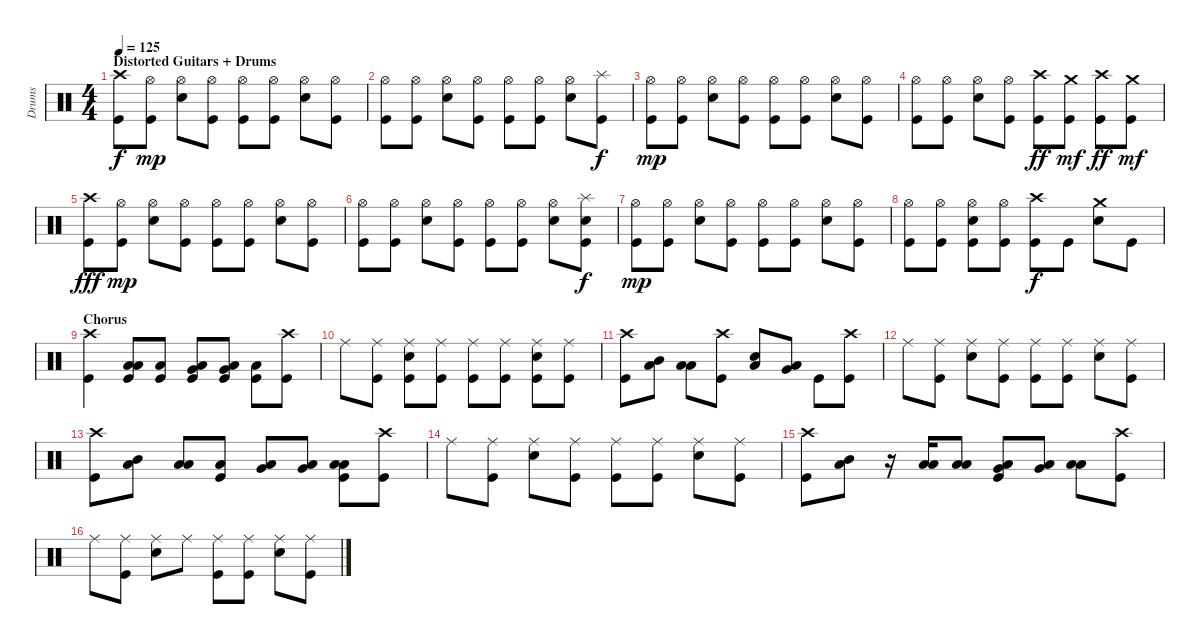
\track ("Drums" "Drums") {instrument percussion}
\staff {score}
\articulation defaults
\ts (4 4)
\section ("" "Distorted Guitars + Drums")
\tempo 125
\clef neutral
\ks c
("Crash high (hit)" "Kick (hit)").8{dy f} ("Hi-Hat (open)" "Kick (hit)").8{dy mp} ("Hi-Hat (open)" "Snare (hit) 2").8 ("Hi-Hat (open)" "Kick (hit)").8 ("Hi-Hat (open)" "Kick (hit)").8 ("Hi-Hat (open)" "Kick (hit)").8 ("Hi-Hat (open)" "Snare (hit) 2").8 ("Hi-Hat (open)" "Kick (hit)").8 |
("Hi-Hat (open)" "Kick (hit)").8 ("Hi-Hat (open)" "Kick (hit)").8 ("Hi-Hat (open)" "Snare (hit) 2").8 ("Hi-Hat (open)" "Kick (hit)").8 ("Hi-Hat (open)" "Kick (hit)").8 ("Hi-Hat (open)" "Kick (hit)").8 ("Hi-Hat (open)" "Snare (hit) 2").8 ("Splash (hit)" "Kick (hit)").8{dy f} |
("Hi-Hat (open)" "Kick (hit)").8{dy mp} ("Hi-Hat (open)" "Kick (hit)").8 ("Hi-Hat (open)" "Snare (hit) 2").8 ("Hi-Hat (open)" "Kick (hit)").8 ("Hi-Hat (open)" "Kick (hit)").8 ("Hi-Hat (open)" "Kick (hit)").8 ("Hi-Hat (open)" "Snare (hit) 2").8 ("Hi-Hat (open)" "Kick (hit)").8 |
("Hi-Hat (open)" "Kick (hit)").8 ("Hi-Hat (open)" "Kick (hit)").8 ("Hi-Hat (open)" "Snare (hit) 2").8 ("Hi-Hat (open)" "Kick (hit)").8 ("Crash high (hit)" "Kick (hit)").8{dy ff} ("Crash medium (hit)" "Kick (hit)").8{dy mf} ("Crash high (hit)" "Kick (hit)").8{dy ff} ("Crash medium (hit)" "Kick (hit)").8{dy mf} |
("Crash high (hit)" "Kick (hit)").8{dy fff} ("Hi-Hat (open)" "Kick (hit)").8{dy mp} ("Hi-Hat (open)" "Snare (hit) 2").8 ("Hi-Hat (open)" "Kick (hit)").8 ("Hi-Hat (open)" "Kick (hit)").8 ("Hi-Hat (open)" "Kick (hit)").8 ("Hi-Hat (open)" "Snare (hit) 2").8 ("Hi-Hat (open)" "Kick (hit)").8 |
("Hi-Hat (open)" "Kick (hit)").8 ("Hi-Hat (open)" "Kick (hit)").8 ("Hi-Hat (open)" "Snare (hit) 2").8 ("Hi-Hat (open)" "Kick (hit)").8 ("Hi-Hat (open)" "Kick (hit)").8 ("Hi-Hat (open)" "Kick (hit)").8 ("Hi-Hat (open)" "Snare (hit) 2").8 ("Splash (hit)" "Snare (hit) 2" "Kick (hit)").8{dy f} |
("Hi-Hat (open)" "Kick (hit)").8{dy mp} ("Hi-Hat (open)" "Kick (hit)").8 ("Hi-Hat (open)" "Snare (hit) 2").8 ("Hi-Hat (open)" "Kick (hit)").8 ("Hi-Hat (open)" "Kick (hit)").8 ("Hi-Hat (open)" "Kick (hit)").8 ("Hi-Hat (open)" "Snare (hit) 2").8 ("Hi-Hat (open)" "Kick (hit)").8 |
("Hi-Hat (open)" "Kick (hit)").8 ("Hi-Hat (open)" "Kick (hit)").8 ("Hi-Hat (open)" "Snare (hit) 2" "Kick (hit)").8 ("Hi-Hat (open)" "Kick (hit)").8 ("Crash high (hit)" "Kick (hit)").8{dy f} "Kick (hit)".8 ("Crash medium (hit)" "Snare (hit) 2").8 "Kick (hit)".8 |
\section ("" "Chorus")
("Crash high (hit)" "Kick (hit)").4 ("Low Tom (hit)" "Low Floor Tom (hit)" "Kick (hit)").8 ("Low Floor Tom (hit)" "Kick (hit)").8 ("Very Low Tom (hit)" "Low Floor Tom (hit)" "Kick (hit)").8 ("Very Low Tom (hit)" "Low Floor Tom (hit)" "Kick (hit)").8 ("Low Floor Tom (hit)" "Kick (hit)").8 ("Crash high (hit)" "Kick (hit)").8 |
"Ride (middle)".8 ("Ride (middle)" "Kick (hit)").8 ("Ride (middle)" "Snare (hit) 2" "Kick (hit)").8 ("Ride (middle)" "Kick (hit)").8 ("Ride (middle)" "Kick (hit)").8 ("Ride (middle)" "Kick (hit)").8 ("Ride (middle)" "Snare (hit) 2" "Kick (hit)").8 ("Ride (middle)" "Kick (hit)").8 |
("Crash high (hit)" "Kick (hit)").8 ("Mid Tom (hit)" "Low Floor Tom (hit)").8 ("Low Tom (hit)" "Low Floor Tom (hit)").8 ("Crash high (hit)" "Kick (hit)").8 ("Snare (hit) 2" "Low Floor Tom (hit)").8 ("Very Low Tom (hit)" "Low Floor Tom (hit)").8 "Kick (hit)".8 ("Crash high (hit)" "Kick (hit)").8 |
"Ride (middle)".8 ("Ride (middle)" "Kick (hit)").8 ("Ride (middle)" "Snare (hit) 2").8 ("Ride (middle)" "Kick (hit)").8 ("Ride (middle)" "Kick (hit)").8 ("Ride (middle)" "Kick (hit)").8 ("Ride (middle)" "Snare (hit) 2").8 ("Ride (middle)" "Kick (hit)").8 |
("Crash high (hit)" "Kick (hit)").8 ("Mid Tom (hit)" "Low Floor Tom (hit)").8 ("Low Tom (hit)" "Low Floor Tom (hit)").8 ("Low Tom (hit)" "Kick (hit)").8 ("Very Low Tom (hit)" "Low Floor Tom (hit)").8 ("Very Low Tom (hit)" "Low Floor Tom (hit)").8 ("Low Floor Tom (hit)" "Low Floor Tom (hit)" "Kick (hit)").8 ("Crash high (hit)" "Kick (hit)").8 |
"Ride (middle)".8 ("Ride (middle)" "Kick (hit)").8 ("Ride (middle)" "Snare (hit) 2").8 ("Ride (middle)" "Kick (hit)").8 ("Ride (middle)" "Kick (hit)").8 ("Ride (middle)" "Kick (hit)").8 ("Ride (middle)" "Snare (hit) 2").8 ("Ride (middle)" "Kick (hit)").8 |
("Crash high (hit)" "Kick (hit)").8 ("Mid Tom (hit)" "Low Floor Tom (hit)").8 r.16 ("Low Tom (hit)" "Low Floor Tom (hit)").16 ("Low Tom (hit)" "Low Floor Tom (hit)").8 ("Very Low Tom (hit)" "Low Floor Tom (hit)" "Kick (hit)").8 ("Very Low Tom (hit)" "Low Floor Tom (hit)").8 ("Low Floor Tom (hit)" "Low Floor Tom (hit)").8 ("Crash high (hit)" "Kick (hit)").8 |
"Ride (middle)".8 ("Ride (middle)" "Kick (hit)").8 ("Ride (middle)" "Snare (hit) 2").8 "Ride (middle)".8 ("Ride (middle)" "Kick (hit)").8 ("Ride (middle)" "Kick (hit)").8 ("Ride (middle)" "Snare (hit) 2").8 ("Ride (middle)" "Kick (hit)").8
